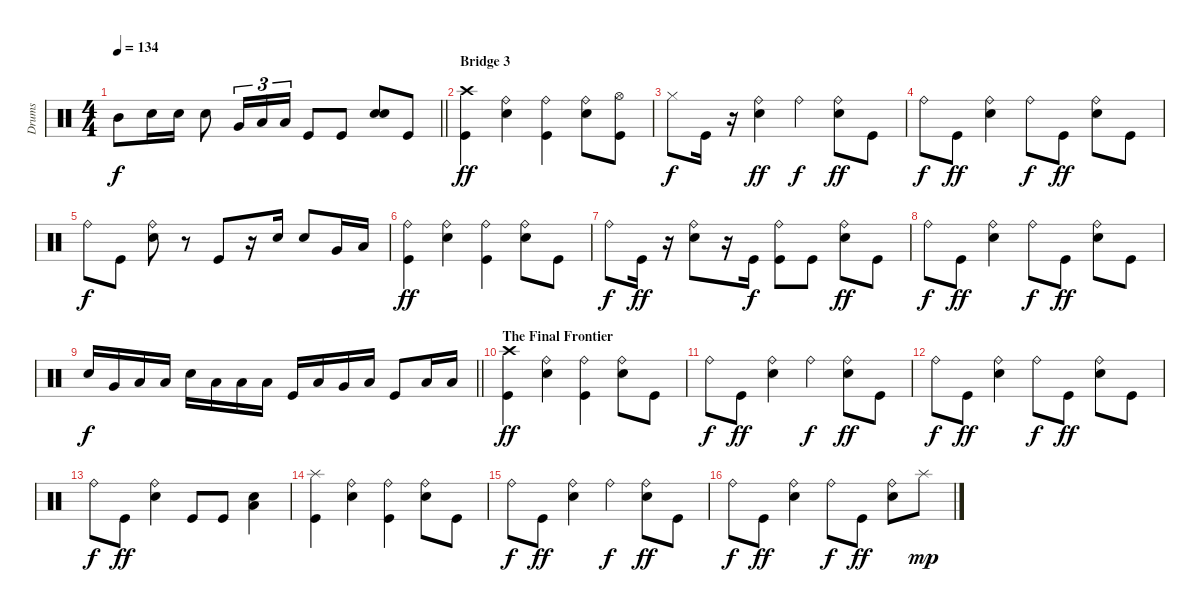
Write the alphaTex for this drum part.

\track ("Drums" "Drums") {instrument percussion}
\staff {score}
\articulation defaults
\ts (4 4)
\tempo 134
\clef neutral
\barLineRight lightlight
\ks c "Mid Tom (hit)".8{dy f} "Electric Snare (hit)".16 "Electric Snare (hit)".16 "Electric Snare (hit)".8 "Very Low Tom (hit)".16{tu (3 2)} "Low Floor Tom (hit)".16{tu (3 2)} "Low Floor Tom (hit)".16{tu (3 2)} "Kick (hit)".8 "Kick (hit)".8
("Snare (hit) 2" "Electric Snare (hit)").8 "Kick (hit)".8 |
\section ("" "Bridge 3")
("Crash high (hit)" "Kick (hit)").4{dy ff} ("Ride (bell)" "Electric Snare (hit)").4 ("Ride (bell)" "Kick (hit)").4 ("Ride (bell)" "Electric Snare (hit)").8 ("Hi-Hat (open)" "Kick (hit)").8 |
"Hi-Hat (closed)".8{dy f} "Kick (hit)".16 r.16 ("Ride (bell)" "Electric Snare (hit)").4{dy ff} "Ride (bell)".4{dy f} ("Ride (bell)" "Electric Snare (hit)").8{dy ff} "Kick (hit)".8 |
"Ride (bell)".8{dy f} "Kick (hit)".8{dy ff} ("Ride (bell)" "Electric Snare (hit)").4 "Ride (bell)".8{dy f} "Kick (hit)".8{dy ff} ("Ride (bell)" "Electric Snare (hit)").8 "Kick (hit)".8 |
"Ride (bell)".8{dy f} "Kick (hit)".8 ("Ride (bell)" "Electric Snare (hit)").8 r.8 "Kick (hit)".8 r.16 "Electric Snare (hit)".16 "Electric Snare (hit)".8 "Very Low Tom (hit)".16 "Low Floor Tom (hit)".16 |
("Ride (bell)" "Kick (hit)").4{dy ff} ("Ride (bell)" "Electric Snare (hit)").4 ("Ride (bell)" "Kick (hit)").4 ("Ride (bell)" "Electric Snare (hit)").8 "Kick (hit)".8 |
"Ride (bell)".8{dy f} "Kick (hit)".16{dy ff} r.16 ("Ride (bell)" "Electric Snare (hit)").8 r.16 "Kick (hit)".16{dy f} ("Ride (bell)" "Kick (hit)").8 "Kick (hit)".8 ("Ride (bell)" "Electric Snare (hit)").8{dy ff} "Kick (hit)".8 |
"Ride (bell)".8{dy f} "Kick (hit)".8{dy ff} ("Ride (bell)" "Electric Snare (hit)").4 "Ride (bell)".8{dy f} "Kick (hit)".8{dy ff} ("Ride (bell)" "Electric Snare (hit)").8 "Kick (hit)".8 |
\barLineRight lightlight "Electric Snare (hit)".16{dy f} "Very Low Tom (hit)".16 "Low Floor Tom (hit)".16 "Low Floor Tom (hit)".16 "Electric Snare (hit)".16 "Low Floor Tom (hit)".16 "Low Floor Tom (hit)".16 "Low Floor Tom (hit)".16 "Kick (hit)".16 "Low Tom (hit)".16 "Very Low Tom (hit)".16 "Low Floor Tom (hit)".16 "Kick (hit)".8 "Low Floor Tom (hit)".16 "Low Floor Tom (hit)".16
|
\section ("" "The Final Frontier")
("Crash high (hit)" "Kick (hit)").4{dy ff} ("Ride (bell)" "Electric Snare (hit)").4 ("Ride (bell)" "Kick (hit)").4 ("Ride (bell)" "Electric Snare (hit)").8 "Kick (hit)".8 |
"Ride (bell)".8{dy f} "Kick (hit)".8{dy ff} ("Ride (bell)" "Electric Snare (hit)").4 "Ride (bell)".4{dy f} ("Ride (bell)" "Electric Snare (hit)").8{dy ff} "Kick (hit)".8 |
"Ride (bell)".8{dy f} "Kick (hit)".8{dy ff} ("Ride (bell)" "Electric Snare (hit)").4 "Ride (bell)".8{dy f} "Kick (hit)".8{dy ff} ("Ride (bell)" "Electric Snare (hit)").8 "Kick (hit)".8 |
"Ride (bell)".8{dy f} "Kick (hit)".8{dy ff} ("Ride (bell)" "Electric Snare (hit)").4 "Kick (hit)".8 "Kick (hit)".8 ("Low Floor Tom (hit)" "Electric Snare (hit)").4 |
("Splash (hit)" "Kick (hit)").4 ("Ride (bell)" "Electric Snare (hit)").4 ("Ride (bell)" "Kick (hit)").4 ("Ride (bell)" "Electric Snare (hit)").8 "Kick (hit)".8 |
"Ride (bell)".8{dy f} "Kick (hit)".8{dy ff} ("Ride (bell)" "Electric Snare (hit)").4 "Ride (bell)".4{dy f} ("Ride (bell)" "Electric Snare (hit)").8{dy ff} "Kick (hit)".8 |
"Ride (bell)".8{dy f} "Kick (hit)".8{dy ff} ("Ride (bell)" "Electric Snare (hit)").4 "Ride (bell)".8{dy f} "Kick (hit)".8{dy ff} ("Ride (bell)" "Electric Snare (hit)").8 "Splash (hit)".8{dy mp}
